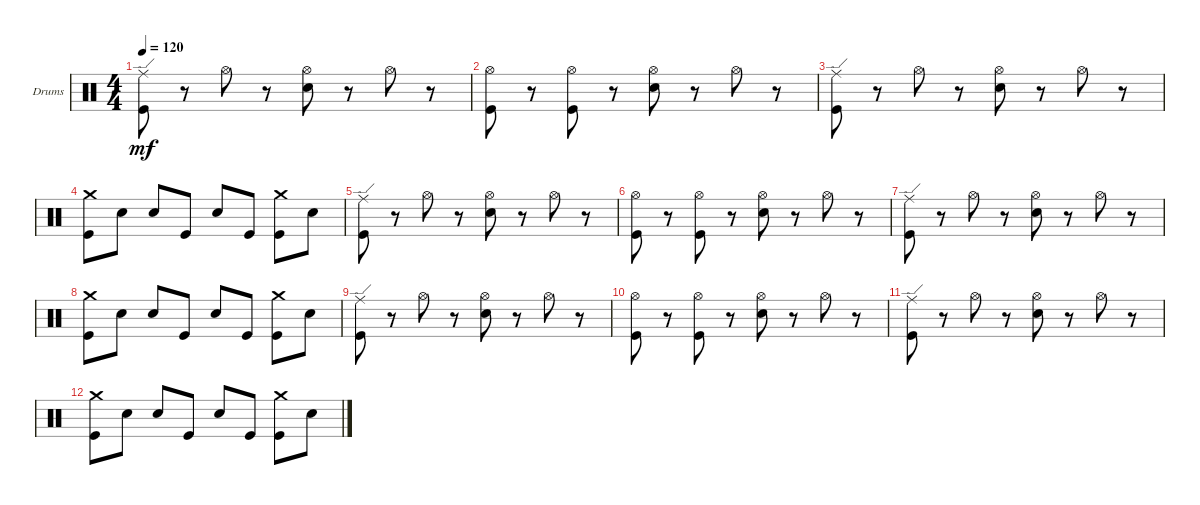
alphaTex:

\bracketExtendMode groupsimilarinstruments
\firstSystemTrackNameOrientation horizontal
\otherSystemsTrackNameOrientation horizontal
\track ("Drumkit" "Drums") {instrument percussion}
\staff {score}
\articulation defaults
\ts (4 4)
\tempo 120
\clef neutral
\ks c
("Kick (hit)" "Ride (edge)").8{dy mf} r.8 "Hi-Hat (open)".8 r.8 ("Snare (hit) 2" "Hi-Hat (open)").8 r.8 "Hi-Hat (open)".8 r.8 |
("Kick (hit)" "Hi-Hat (open)").8 r.8 ("Kick (hit)" "Hi-Hat (open)").8 r.8 ("Snare (hit) 2" "Hi-Hat (open)").8 r.8 "Hi-Hat (open)".8 r.8 |
("Kick (hit)" "Ride (edge)").8 r.8 "Hi-Hat (open)".8 r.8 ("Snare (hit) 2" "Hi-Hat (open)").8 r.8 "Hi-Hat (open)".8 r.8 |
("Kick (hit)" "Crash medium (hit)").8 "Snare (hit) 2".8 "Snare (hit) 2".8 "Kick (hit)".8 "Snare (hit) 2".8 "Kick (hit)".8 ("Kick (hit)" "Crash medium (hit)").8 "Snare (hit) 2".8 |
("Kick (hit)" "Ride (edge)").8 r.8 "Hi-Hat (open)".8 r.8 ("Snare (hit) 2" "Hi-Hat (open)").8 r.8 "Hi-Hat (open)".8 r.8 |
("Kick (hit)" "Hi-Hat (open)").8 r.8 ("Kick (hit)" "Hi-Hat (open)").8 r.8 ("Snare (hit) 2" "Hi-Hat (open)").8 r.8 "Hi-Hat (open)".8 r.8 |
("Kick (hit)" "Ride (edge)").8 r.8 "Hi-Hat (open)".8 r.8 ("Snare (hit) 2" "Hi-Hat (open)").8 r.8 "Hi-Hat (open)".8 r.8 |
("Kick (hit)" "Crash medium (hit)").8 "Snare (hit) 2".8 "Snare (hit) 2".8 "Kick (hit)".8 "Snare (hit) 2".8 "Kick (hit)".8 ("Kick (hit)" "Crash medium (hit)").8 "Snare (hit) 2".8 |
("Kick (hit)" "Ride (edge)").8 r.8 "Hi-Hat (open)".8 r.8 ("Snare (hit) 2" "Hi-Hat (open)").8 r.8 "Hi-Hat (open)".8 r.8 |
("Kick (hit)" "Hi-Hat (open)").8 r.8 ("Kick (hit)" "Hi-Hat (open)").8 r.8 ("Snare (hit) 2" "Hi-Hat (open)").8 r.8 "Hi-Hat (open)".8 r.8 |
("Kick (hit)" "Ride (edge)").8 r.8 "Hi-Hat (open)".8 r.8 ("Snare (hit) 2" "Hi-Hat (open)").8 r.8 "Hi-Hat (open)".8 r.8 |
("Kick (hit)" "Crash medium (hit)").8 "Snare (hit) 2".8 "Snare (hit) 2".8 "Kick (hit)".8 "Snare (hit) 2".8 "Kick (hit)".8 ("Kick (hit)" "Crash medium (hit)").8 "Snare (hit) 2".8
